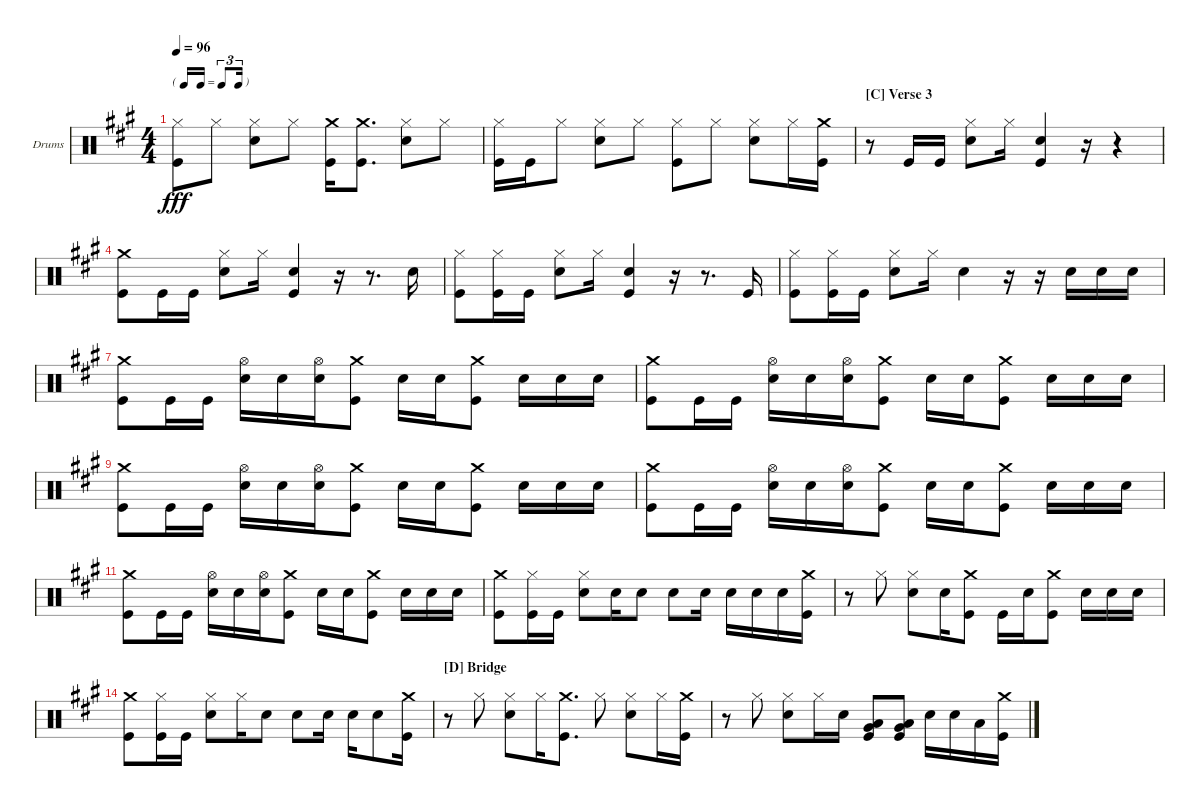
\bracketExtendMode nobrackets
\firstSystemTrackNameOrientation horizontal
\otherSystemsTrackNameOrientation horizontal
\defaultBarNumberDisplay FirstOfSystem
\track ("Drumkit" "Drums") {instrument percussion}
\staff {score}
\articulation defaults
\ts (4 4)
\tf triplet16th
\tempo 96
\clef neutral
\ks a
("Kick (hit)" "Hi-Hat (closed)").8{dy fff} "Hi-Hat (closed)".8 ("Snare (hit) 2" "Hi-Hat (closed)").8 "Hi-Hat (closed)".8 ("Kick (hit)" "Crash medium (hit)").16 ("Kick (hit)" "Crash medium (hit)").8{d} ("Snare (hit) 2" "Hi-Hat (closed)").8 "Hi-Hat (closed)".8 |
("Kick (hit)" "Hi-Hat (closed)").16 "Kick (hit)".16 "Hi-Hat (closed)".8 ("Snare (hit) 2" "Hi-Hat (closed)").8 "Hi-Hat (closed)".8 ("Kick (hit)" "Hi-Hat (closed)").8 "Hi-Hat (closed)".8 ("Snare (hit) 2" "Hi-Hat (closed)").8 "Hi-Hat (closed)".16 ("Kick (hit)" "Crash medium (hit)").16 |
\section ("C" "Verse 3")
r.8 "Kick (hit)".16 "Kick (hit)".16 ("Snare (hit) 2" "Hi-Hat (closed)").8 "Hi-Hat (closed)".16 ("Kick (hit)" "Snare (hit) 2").4 r.16 r.4 |
("Crash medium (hit)" "Kick (hit)").8 "Kick (hit)".16 "Kick (hit)".16 ("Snare (hit) 2" "Hi-Hat (closed)").8 "Hi-Hat (closed)".16 ("Kick (hit)" "Snare (hit) 2").4 r.16 r.8{d} "Snare (hit) 2".16 |
("Kick (hit)" "Hi-Hat (closed)").8 ("Kick (hit)" "Hi-Hat (closed)").16 "Kick (hit)".16 ("Snare (hit) 2" "Hi-Hat (closed)").8 "Hi-Hat (closed)".16 ("Snare (hit) 2" "Kick (hit)").4 r.16 r.8{d} "Kick (hit)".16 |
("Kick (hit)" "Hi-Hat (closed)").8 ("Kick (hit)" "Hi-Hat (closed)").16 "Kick (hit)".16 ("Snare (hit) 2" "Hi-Hat (closed)").8 "Hi-Hat (closed)".16 "Snare (hit) 2".4 r.16 r.16 "Snare (hit) 2".16 "Snare (hit) 2".16 "Snare (hit) 2".16 |
("Kick (hit)" "Crash medium (hit)").8 "Kick (hit)".16 "Kick (hit)".16 ("Snare (hit) 2" "Hi-Hat (open)").16 "Snare (hit) 2".16 ("Hi-Hat (open)" "Snare (hit) 2").16 ("Crash medium (hit)" "Kick (hit)").8 "Snare (hit) 2".16 "Snare (hit) 2".16 ("Crash medium (hit)" "Kick (hit)").8 "Snare (hit) 2".16 "Snare (hit) 2".16 "Snare (hit) 2".16 |
("Kick (hit)" "Crash medium (hit)").8 "Kick (hit)".16 "Kick (hit)".16 ("Hi-Hat (open)" "Snare (hit) 2").16 "Snare (hit) 2".16 ("Hi-Hat (open)" "Snare (hit) 2").16 ("Crash medium (hit)" "Kick (hit)").8 "Snare (hit) 2".16 "Snare (hit) 2".16 ("Crash medium (hit)" "Kick (hit)").8 "Snare (hit) 2".16 "Snare (hit) 2".16 "Snare (hit) 2".16 |
("Kick (hit)" "Crash medium (hit)").8 "Kick (hit)".16 "Kick (hit)".16 ("Hi-Hat (open)" "Snare (hit) 2").16 "Snare (hit) 2".16 ("Hi-Hat (open)" "Snare (hit) 2").16 ("Crash medium (hit)" "Kick (hit)").8 "Snare (hit) 2".16 "Snare (hit) 2".16 ("Crash medium (hit)" "Kick (hit)").8 "Snare (hit) 2".16 "Snare (hit) 2".16 "Snare (hit) 2".16 |
("Kick (hit)" "Crash medium (hit)").8 "Kick (hit)".16 "Kick (hit)".16 ("Hi-Hat (open)" "Snare (hit) 2").16 "Snare (hit) 2".16 ("Hi-Hat (open)" "Snare (hit) 2").16 ("Crash medium (hit)" "Kick (hit)").8 "Snare (hit) 2".16 "Snare (hit) 2".16 ("Crash medium (hit)" "Kick (hit)").8 "Snare (hit) 2".16 "Snare (hit) 2".16 "Snare (hit) 2".16 |
("Kick (hit)" "Crash medium (hit)").8 "Kick (hit)".16 "Kick (hit)".16 ("Hi-Hat (open)" "Snare (hit) 2").16 "Snare (hit) 2".16 ("Hi-Hat (open)" "Snare (hit) 2").16 ("Crash medium (hit)" "Kick (hit)").8 "Snare (hit) 2".16 "Snare (hit) 2".16 ("Crash medium (hit)" "Kick (hit)").8 "Snare (hit) 2".16 "Snare (hit) 2".16 "Snare (hit) 2".16 |
("Kick (hit)" "Crash medium (hit)").8 ("Kick (hit)" "Hi-Hat (closed)").16 "Kick (hit)".16 ("Snare (hit) 2" "Hi-Hat (closed)").8 "Snare (hit) 2".16 "Snare (hit) 2".8 "Snare (hit) 2".8 "Snare (hit) 2".16 "Snare (hit) 2".16 "Snare (hit) 2".16 "Snare (hit) 2".16 ("Crash medium (hit)" "Kick (hit)").16 |
r.8 "Hi-Hat (closed)".8 ("Snare (hit) 2" "Hi-Hat (closed)").8 "Snare (hit) 2".16 ("Crash medium (hit)" "Kick (hit)").8 "Kick (hit)".16 "Snare (hit) 2".16 ("Crash medium (hit)" "Kick (hit)").8 "Snare (hit) 2".16 "Snare (hit) 2".16 "Snare (hit) 2".16 |
("Kick (hit)" "Crash medium (hit)").8 ("Kick (hit)" "Hi-Hat (closed)").16 "Kick (hit)".16 ("Snare (hit) 2" "Hi-Hat (closed)").8 "Hi-Hat (closed)".16 "Snare (hit) 2".8 "Snare (hit) 2".8 "Snare (hit) 2".16 "Snare (hit) 2".16 "Snare (hit) 2".8 ("Crash medium (hit)" "Kick (hit)").16 |
\section ("D" "Bridge")
r.8 "Hi-Hat (closed)".8 ("Snare (hit) 2" "Hi-Hat (closed)").8 "Hi-Hat (closed)".16 ("Kick (hit)" "Crash medium (hit)").8{d} "Hi-Hat (closed)".8 ("Snare (hit) 2" "Hi-Hat (closed)").8 "Hi-Hat (closed)".16 ("Kick (hit)" "Crash medium (hit)").16 |
r.8 "Hi-Hat (closed)".8 ("Snare (hit) 2" "Hi-Hat (closed)").8 "Hi-Hat (closed)".16 "Snare (hit) 2".16 ("Very Low Tom (hit)" "Kick (hit)" "Low Tom (hit)").8 ("Low Tom (hit)" "Very Low Tom (hit)" "Kick (hit)").8 "Snare (hit) 2".16 "Snare (hit) 2".16 "Low Tom (hit)".16 ("Crash medium (hit)" "Kick (hit)").16
